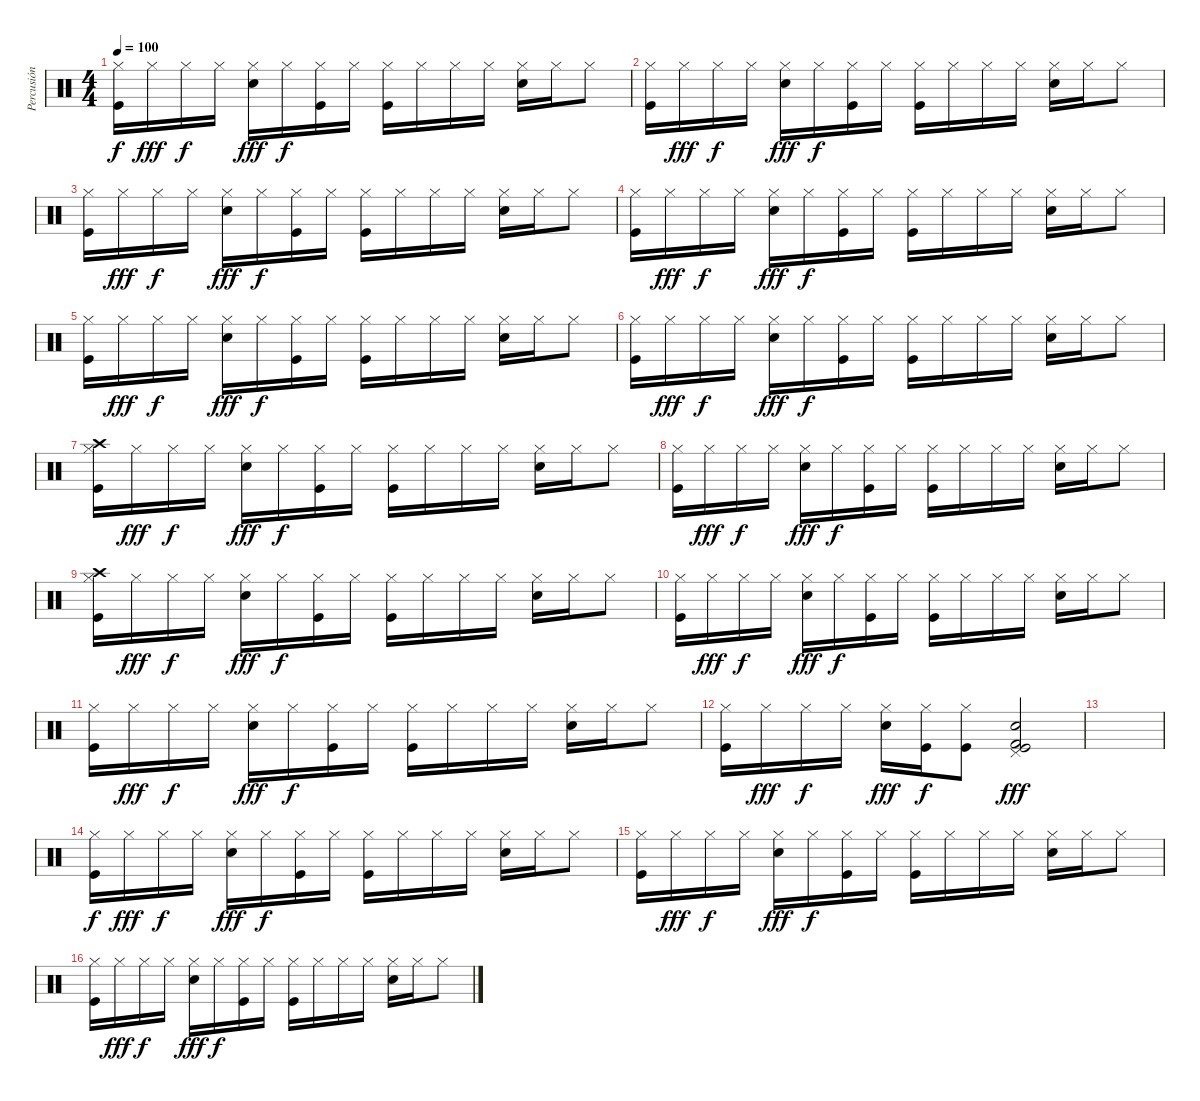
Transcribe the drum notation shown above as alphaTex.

\track ("Percusión" "Percusión") {instrument percussion}
\staff {score}
\articulation defaults
\ts (4 4)
\tempo 100
\clef neutral
\ks c
("Hi-Hat (closed)" "Kick (hit)").16{dy f} "Hi-Hat (closed)".16{dy fff} "Hi-Hat (closed)".16{dy f} "Hi-Hat (closed)".16 ("Snare (hit) 2" "Hi-Hat (closed)").16{dy fff} "Hi-Hat (closed)".16{dy f} ("Hi-Hat (closed)" "Kick (hit)").16 "Hi-Hat (closed)".16 ("Kick (hit)" "Hi-Hat (closed)").16 "Hi-Hat (closed)".16 "Hi-Hat (closed)".16 "Hi-Hat (closed)".16 ("Snare (hit) 2" "Hi-Hat (closed)").16 "Hi-Hat (closed)".16 "Hi-Hat (closed)".8 |
("Hi-Hat (closed)" "Kick (hit)").16 "Hi-Hat (closed)".16{dy fff} "Hi-Hat (closed)".16{dy f} "Hi-Hat (closed)".16 ("Snare (hit) 2" "Hi-Hat (closed)").16{dy fff} "Hi-Hat (closed)".16{dy f} ("Hi-Hat (closed)" "Kick (hit)").16 "Hi-Hat (closed)".16 ("Kick (hit)" "Hi-Hat (closed)").16 "Hi-Hat (closed)".16 "Hi-Hat (closed)".16 "Hi-Hat (closed)".16 ("Snare (hit) 2" "Hi-Hat (closed)").16 "Hi-Hat (closed)".16 "Hi-Hat (closed)".8 |
("Hi-Hat (closed)" "Kick (hit)").16 "Hi-Hat (closed)".16{dy fff} "Hi-Hat (closed)".16{dy f} "Hi-Hat (closed)".16 ("Snare (hit) 2" "Hi-Hat (closed)").16{dy fff} "Hi-Hat (closed)".16{dy f} ("Hi-Hat (closed)" "Kick (hit)").16 "Hi-Hat (closed)".16 ("Kick (hit)" "Hi-Hat (closed)").16 "Hi-Hat (closed)".16 "Hi-Hat (closed)".16 "Hi-Hat (closed)".16 ("Snare (hit) 2" "Hi-Hat (closed)").16 "Hi-Hat (closed)".16 "Hi-Hat (closed)".8 |
("Hi-Hat (closed)" "Kick (hit)").16 "Hi-Hat (closed)".16{dy fff} "Hi-Hat (closed)".16{dy f} "Hi-Hat (closed)".16 ("Snare (hit) 2" "Hi-Hat (closed)").16{dy fff} "Hi-Hat (closed)".16{dy f} ("Hi-Hat (closed)" "Kick (hit)").16 "Hi-Hat (closed)".16 ("Kick (hit)" "Hi-Hat (closed)").16 "Hi-Hat (closed)".16 "Hi-Hat (closed)".16 "Hi-Hat (closed)".16 ("Snare (hit) 2" "Hi-Hat (closed)").16 "Hi-Hat (closed)".16 "Hi-Hat (closed)".8 |
("Hi-Hat (closed)" "Kick (hit)").16 "Hi-Hat (closed)".16{dy fff} "Hi-Hat (closed)".16{dy f} "Hi-Hat (closed)".16 ("Snare (hit) 2" "Hi-Hat (closed)").16{dy fff} "Hi-Hat (closed)".16{dy f} ("Hi-Hat (closed)" "Kick (hit)").16 "Hi-Hat (closed)".16 ("Kick (hit)" "Hi-Hat (closed)").16 "Hi-Hat (closed)".16 "Hi-Hat (closed)".16 "Hi-Hat (closed)".16 ("Snare (hit) 2" "Hi-Hat (closed)").16 "Hi-Hat (closed)".16 "Hi-Hat (closed)".8 |
("Hi-Hat (closed)" "Kick (hit)").16 "Hi-Hat (closed)".16{dy fff} "Hi-Hat (closed)".16{dy f} "Hi-Hat (closed)".16 ("Snare (hit) 2" "Hi-Hat (closed)").16{dy fff} "Hi-Hat (closed)".16{dy f} ("Hi-Hat (closed)" "Kick (hit)").16 "Hi-Hat (closed)".16 ("Kick (hit)" "Hi-Hat (closed)").16 "Hi-Hat (closed)".16 "Hi-Hat (closed)".16 "Hi-Hat (closed)".16 ("Snare (hit) 2" "Hi-Hat (closed)").16 "Hi-Hat (closed)".16 "Hi-Hat (closed)".8 |
("Crash high (hit)" "Hi-Hat (closed)" "Kick (hit)").16 "Hi-Hat (closed)".16{dy fff} "Hi-Hat (closed)".16{dy f} "Hi-Hat (closed)".16 ("Snare (hit) 2" "Hi-Hat (closed)").16{dy fff} "Hi-Hat (closed)".16{dy f} ("Hi-Hat (closed)" "Kick (hit)").16 "Hi-Hat (closed)".16 ("Kick (hit)" "Hi-Hat (closed)").16 "Hi-Hat (closed)".16 "Hi-Hat (closed)".16 "Hi-Hat (closed)".16 ("Snare (hit) 2" "Hi-Hat (closed)").16 "Hi-Hat (closed)".16 "Hi-Hat (closed)".8 |
("Hi-Hat (closed)" "Kick (hit)").16 "Hi-Hat (closed)".16{dy fff} "Hi-Hat (closed)".16{dy f} "Hi-Hat (closed)".16 ("Snare (hit) 2" "Hi-Hat (closed)").16{dy fff} "Hi-Hat (closed)".16{dy f} ("Hi-Hat (closed)" "Kick (hit)").16 "Hi-Hat (closed)".16 ("Kick (hit)" "Hi-Hat (closed)").16 "Hi-Hat (closed)".16 "Hi-Hat (closed)".16 "Hi-Hat (closed)".16 ("Snare (hit) 2" "Hi-Hat (closed)").16 "Hi-Hat (closed)".16 "Hi-Hat (closed)".8 |
("Crash high (hit)" "Hi-Hat (closed)" "Kick (hit)").16 "Hi-Hat (closed)".16{dy fff} "Hi-Hat (closed)".16{dy f} "Hi-Hat (closed)".16 ("Snare (hit) 2" "Hi-Hat (closed)").16{dy fff} "Hi-Hat (closed)".16{dy f} ("Hi-Hat (closed)" "Kick (hit)").16 "Hi-Hat (closed)".16 ("Kick (hit)" "Hi-Hat (closed)").16 "Hi-Hat (closed)".16 "Hi-Hat (closed)".16 "Hi-Hat (closed)".16 ("Snare (hit) 2" "Hi-Hat (closed)").16 "Hi-Hat (closed)".16 "Hi-Hat (closed)".8 |
("Hi-Hat (closed)" "Kick (hit)").16 "Hi-Hat (closed)".16{dy fff} "Hi-Hat (closed)".16{dy f} "Hi-Hat (closed)".16 ("Snare (hit) 2" "Hi-Hat (closed)").16{dy fff} "Hi-Hat (closed)".16{dy f} ("Hi-Hat (closed)" "Kick (hit)").16 "Hi-Hat (closed)".16 ("Kick (hit)" "Hi-Hat (closed)").16 "Hi-Hat (closed)".16 "Hi-Hat (closed)".16 "Hi-Hat (closed)".16 ("Snare (hit) 2" "Hi-Hat (closed)").16 "Hi-Hat (closed)".16 "Hi-Hat (closed)".8 |
("Hi-Hat (closed)" "Kick (hit)").16 "Hi-Hat (closed)".16{dy fff} "Hi-Hat (closed)".16{dy f} "Hi-Hat (closed)".16 ("Snare (hit) 2" "Hi-Hat (closed)").16{dy fff} "Hi-Hat (closed)".16{dy f} ("Hi-Hat (closed)" "Kick (hit)").16 "Hi-Hat (closed)".16 ("Kick (hit)" "Hi-Hat (closed)").16 "Hi-Hat (closed)".16 "Hi-Hat (closed)".16 "Hi-Hat (closed)".16 ("Snare (hit) 2" "Hi-Hat (closed)").16 "Hi-Hat (closed)".16 "Hi-Hat (closed)".8 |
("Hi-Hat (closed)" "Kick (hit)").16 "Hi-Hat (closed)".16{dy fff} "Hi-Hat (closed)".16{dy f} "Hi-Hat (closed)".16 ("Snare (hit) 2" "Hi-Hat (closed)").16{dy fff} ("Hi-Hat (closed)" "Kick (hit)").16{dy f} ("Kick (hit)" "Hi-Hat (closed)").8 ("Snare (hit) 2" "Pedal Hi-Hat (hit)" "Kick (hit) 2" "Kick (hit)").2{dy fff} |
|
("Hi-Hat (closed)" "Kick (hit)").16{dy f} "Hi-Hat (closed)".16{dy fff} "Hi-Hat (closed)".16{dy f} "Hi-Hat (closed)".16 ("Snare (hit) 2" "Hi-Hat (closed)").16{dy fff} "Hi-Hat (closed)".16{dy f} ("Hi-Hat (closed)" "Kick (hit)").16 "Hi-Hat (closed)".16 ("Kick (hit)" "Hi-Hat (closed)").16 "Hi-Hat (closed)".16 "Hi-Hat (closed)".16 "Hi-Hat (closed)".16 ("Snare (hit) 2" "Hi-Hat (closed)").16 "Hi-Hat (closed)".16 "Hi-Hat (closed)".8 |
("Hi-Hat (closed)" "Kick (hit)").16 "Hi-Hat (closed)".16{dy fff} "Hi-Hat (closed)".16{dy f} "Hi-Hat (closed)".16 ("Snare (hit) 2" "Hi-Hat (closed)").16{dy fff} "Hi-Hat (closed)".16{dy f} ("Hi-Hat (closed)" "Kick (hit)").16 "Hi-Hat (closed)".16 ("Kick (hit)" "Hi-Hat (closed)").16 "Hi-Hat (closed)".16 "Hi-Hat (closed)".16 "Hi-Hat (closed)".16 ("Snare (hit) 2" "Hi-Hat (closed)").16 "Hi-Hat (closed)".16 "Hi-Hat (closed)".8 |
("Hi-Hat (closed)" "Kick (hit)").16 "Hi-Hat (closed)".16{dy fff} "Hi-Hat (closed)".16{dy f} "Hi-Hat (closed)".16 ("Snare (hit) 2" "Hi-Hat (closed)").16{dy fff} "Hi-Hat (closed)".16{dy f} ("Hi-Hat (closed)" "Kick (hit)").16 "Hi-Hat (closed)".16 ("Kick (hit)" "Hi-Hat (closed)").16 "Hi-Hat (closed)".16 "Hi-Hat (closed)".16 "Hi-Hat (closed)".16 ("Snare (hit) 2" "Hi-Hat (closed)").16 "Hi-Hat (closed)".16 "Hi-Hat (closed)".8
